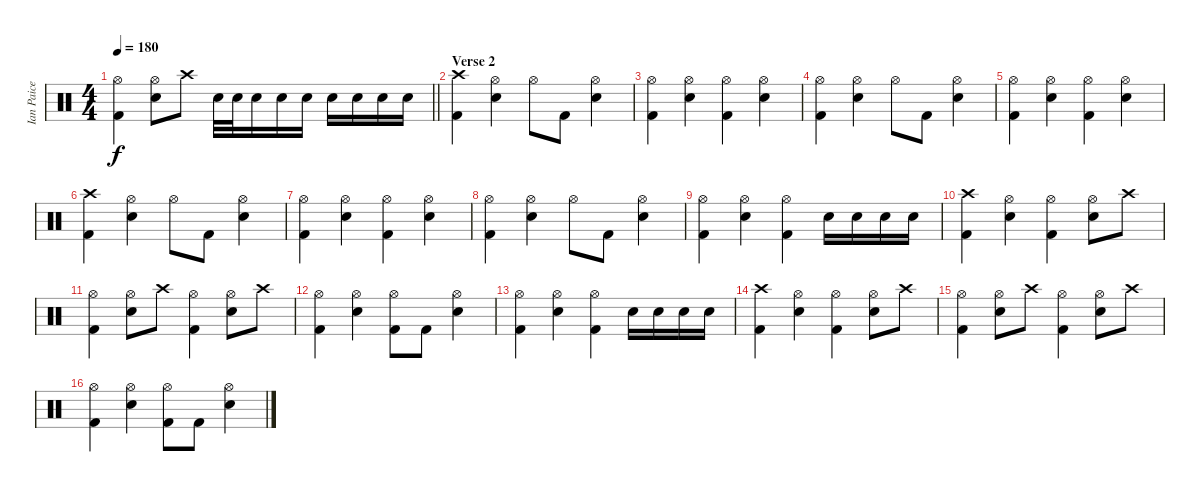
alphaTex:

\track ("Ian Paice" "Ian Paice") {instrument percussion}
\staff {score}
\articulation defaults
\ts (4 4)
\tempo 180
\clef neutral
\barLineRight lightlight
\ks c
("Hi-Hat (open)" "Kick (hit) 2").4{dy f} ("Hi-Hat (open)" "Snare (hit) 2").8 "Crash high (hit)".8 "Snare (hit) 2".32 "Snare (hit) 2".32 "Snare (hit) 2".16 "Snare (hit) 2".16 "Snare (hit) 2".16 "Snare (hit) 2".16 "Snare (hit) 2".16 "Snare (hit) 2".16 "Snare (hit) 2".16 |
\section ("" "Verse 2")
("Crash high (hit)" "Kick (hit) 2").4 ("Hi-Hat (open)" "Snare (hit) 2").4 "Hi-Hat (open)".8 "Kick (hit) 2".8 ("Hi-Hat (open)" "Snare (hit) 2").4 |
("Hi-Hat (open)" "Kick (hit) 2").4 ("Hi-Hat (open)" "Snare (hit) 2").4 ("Hi-Hat (open)" "Kick (hit) 2").4 ("Hi-Hat (open)" "Snare (hit) 2").4 |
\ks aminor
("Hi-Hat (open)" "Kick (hit) 2").4 ("Hi-Hat (open)" "Snare (hit) 2").4 "Hi-Hat (open)".8 "Kick (hit) 2".8 ("Hi-Hat (open)" "Snare (hit) 2").4 |
("Hi-Hat (open)" "Kick (hit) 2").4 ("Hi-Hat (open)" "Snare (hit) 2").4 ("Hi-Hat (open)" "Kick (hit) 2").4 ("Hi-Hat (open)" "Snare (hit) 2").4 |
\ks c
("Crash high (hit)" "Kick (hit) 2").4 ("Hi-Hat (open)" "Snare (hit) 2").4 "Hi-Hat (open)".8 "Kick (hit) 2".8 ("Hi-Hat (open)" "Snare (hit) 2").4 |
("Hi-Hat (open)" "Kick (hit) 2").4 ("Hi-Hat (open)" "Snare (hit) 2").4 ("Hi-Hat (open)" "Kick (hit) 2").4 ("Hi-Hat (open)" "Snare (hit) 2").4 |
\ks aminor
("Hi-Hat (open)" "Kick (hit) 2").4 ("Hi-Hat (open)" "Snare (hit) 2").4 "Hi-Hat (open)".8 "Kick (hit) 2".8 ("Hi-Hat (open)" "Snare (hit) 2").4 |
("Hi-Hat (open)" "Kick (hit) 2").4 ("Hi-Hat (open)" "Snare (hit) 2").4 ("Hi-Hat (open)" "Kick (hit) 2").4 "Snare (hit) 2".16 "Snare (hit) 2".16 "Snare (hit) 2".16 "Snare (hit) 2".16 |
("Crash high (hit)" "Kick (hit) 2").4 ("Hi-Hat (open)" "Snare (hit) 2").4 ("Hi-Hat (open)" "Kick (hit) 2").4 ("Hi-Hat (open)" "Snare (hit) 2").8 "Crash high (hit)".8 |
("Hi-Hat (open)" "Kick (hit) 2").4 ("Hi-Hat (open)" "Snare (hit) 2").8 "Crash high (hit)".8 ("Hi-Hat (open)" "Kick (hit) 2").4 ("Hi-Hat (open)" "Snare (hit) 2").8 "Crash high (hit)".8 |
("Hi-Hat (open)" "Kick (hit) 2").4 ("Hi-Hat (open)" "Snare (hit) 2").4 ("Hi-Hat (open)" "Kick (hit) 2").8 "Kick (hit) 2".8 ("Hi-Hat (open)" "Snare (hit) 2").4 |
("Hi-Hat (open)" "Kick (hit) 2").4 ("Hi-Hat (open)" "Snare (hit) 2").4 ("Hi-Hat (open)" "Kick (hit) 2").4 "Snare (hit) 2".16 "Snare (hit) 2".16 "Snare (hit) 2".16 "Snare (hit) 2".16 |
("Crash high (hit)" "Kick (hit) 2").4 ("Hi-Hat (open)" "Snare (hit) 2").4 ("Hi-Hat (open)" "Kick (hit) 2").4 ("Hi-Hat (open)" "Snare (hit) 2").8 "Crash high (hit)".8 |
("Hi-Hat (open)" "Kick (hit) 2").4 ("Hi-Hat (open)" "Snare (hit) 2").8 "Crash high (hit)".8 ("Hi-Hat (open)" "Kick (hit) 2").4 ("Hi-Hat (open)" "Snare (hit) 2").8 "Crash high (hit)".8 |
("Hi-Hat (open)" "Kick (hit) 2").4 ("Hi-Hat (open)" "Snare (hit) 2").4 ("Hi-Hat (open)" "Kick (hit) 2").8 "Kick (hit) 2".8 ("Hi-Hat (open)" "Snare (hit) 2").4
